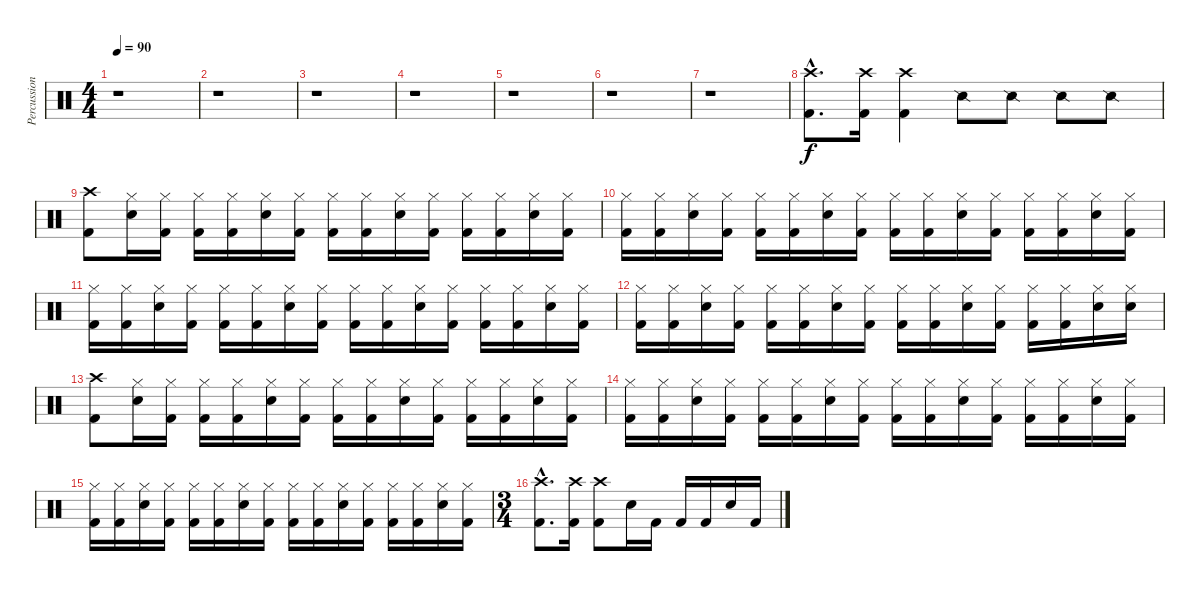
\track ("Percussions" "Percussion") {instrument percussion}
\staff {score}
\articulation defaults
\ts (4 4)
\tempo 90
\clef neutral
\ks c
r.1{dy f} |
r.1 |
r.1 |
r.1 |
r.1 |
r.1 |
r.1 |
("Crash high (hit)"{hac} "Kick (hit) 2"{hac}).8{d} ("Crash high (hit)" "Kick (hit) 2").16 ("Crash high (hit)" "Kick (hit) 2").4 "Snare (side stick) 2".8 "Snare (side stick) 2".8 "Snare (side stick) 2".8 "Snare (side stick) 2".8 |
("Crash high (hit)" "Kick (hit) 2").8 ("Hi-Hat (closed)" "Snare (hit) 2").16 ("Hi-Hat (closed)" "Kick (hit) 2").16 ("Hi-Hat (closed)" "Kick (hit) 2").16 ("Hi-Hat (closed)" "Kick (hit) 2").16 ("Hi-Hat (closed)" "Snare (hit) 2").16 ("Hi-Hat (closed)" "Kick (hit) 2").16 ("Hi-Hat (closed)" "Kick (hit) 2").16 ("Hi-Hat (closed)" "Kick (hit) 2").16 ("Hi-Hat (closed)" "Snare (hit) 2").16 ("Hi-Hat (closed)" "Kick (hit) 2").16 ("Hi-Hat (closed)" "Kick (hit) 2").16 ("Hi-Hat (closed)" "Kick (hit) 2").16 ("Hi-Hat (closed)" "Snare (hit) 2").16 ("Hi-Hat (closed)" "Kick (hit) 2").16 |
("Hi-Hat (closed)" "Kick (hit) 2").16 ("Hi-Hat (closed)" "Kick (hit) 2").16 ("Hi-Hat (closed)" "Snare (hit) 2").16 ("Hi-Hat (closed)" "Kick (hit) 2").16 ("Hi-Hat (closed)" "Kick (hit) 2").16 ("Hi-Hat (closed)" "Kick (hit) 2").16 ("Hi-Hat (closed)" "Snare (hit) 2").16 ("Hi-Hat (closed)" "Kick (hit) 2").16 ("Hi-Hat (closed)" "Kick (hit) 2").16 ("Hi-Hat (closed)" "Kick (hit) 2").16 ("Hi-Hat (closed)" "Snare (hit) 2").16 ("Hi-Hat (closed)" "Kick (hit) 2").16 ("Hi-Hat (closed)" "Kick (hit) 2").16 ("Hi-Hat (closed)" "Kick (hit) 2").16 ("Hi-Hat (closed)" "Snare (hit) 2").16 ("Hi-Hat (closed)" "Kick (hit) 2").16 |
("Hi-Hat (closed)" "Kick (hit) 2").16 ("Hi-Hat (closed)" "Kick (hit) 2").16 ("Hi-Hat (closed)" "Snare (hit) 2").16 ("Hi-Hat (closed)" "Kick (hit) 2").16 ("Hi-Hat (closed)" "Kick (hit) 2").16 ("Hi-Hat (closed)" "Kick (hit) 2").16 ("Hi-Hat (closed)" "Snare (hit) 2").16 ("Hi-Hat (closed)" "Kick (hit) 2").16 ("Hi-Hat (closed)" "Kick (hit) 2").16 ("Hi-Hat (closed)" "Kick (hit) 2").16 ("Hi-Hat (closed)" "Snare (hit) 2").16 ("Hi-Hat (closed)" "Kick (hit) 2").16 ("Hi-Hat (closed)" "Kick (hit) 2").16 ("Hi-Hat (closed)" "Kick (hit) 2").16 ("Hi-Hat (closed)" "Snare (hit) 2").16 ("Hi-Hat (closed)" "Kick (hit) 2").16 |
("Hi-Hat (closed)" "Kick (hit) 2").16 ("Hi-Hat (closed)" "Kick (hit) 2").16 ("Hi-Hat (closed)" "Snare (hit) 2").16 ("Hi-Hat (closed)" "Kick (hit) 2").16 ("Hi-Hat (closed)" "Kick (hit) 2").16 ("Hi-Hat (closed)" "Kick (hit) 2").16 ("Hi-Hat (closed)" "Snare (hit) 2").16 ("Hi-Hat (closed)" "Kick (hit) 2").16 ("Hi-Hat (closed)" "Kick (hit) 2").16 ("Hi-Hat (closed)" "Kick (hit) 2").16 ("Hi-Hat (closed)" "Snare (hit) 2").16 ("Hi-Hat (closed)" "Kick (hit) 2").16 ("Hi-Hat (closed)" "Kick (hit) 2").16 ("Hi-Hat (closed)" "Kick (hit) 2").16 ("Hi-Hat (closed)" "Snare (hit) 2").16 ("Hi-Hat (closed)" "Snare (hit) 2").16 |
("Crash high (hit)" "Kick (hit) 2").8 ("Hi-Hat (closed)" "Snare (hit) 2").16 ("Hi-Hat (closed)" "Kick (hit) 2").16 ("Hi-Hat (closed)" "Kick (hit) 2").16 ("Hi-Hat (closed)" "Kick (hit) 2").16 ("Hi-Hat (closed)" "Snare (hit) 2").16 ("Hi-Hat (closed)" "Kick (hit) 2").16 ("Hi-Hat (closed)" "Kick (hit) 2").16 ("Hi-Hat (closed)" "Kick (hit) 2").16 ("Hi-Hat (closed)" "Snare (hit) 2").16 ("Hi-Hat (closed)" "Kick (hit) 2").16 ("Hi-Hat (closed)" "Kick (hit) 2").16 ("Hi-Hat (closed)" "Kick (hit) 2").16 ("Hi-Hat (closed)" "Snare (hit) 2").16 ("Hi-Hat (closed)" "Kick (hit) 2").16 |
("Hi-Hat (closed)" "Kick (hit) 2").16 ("Hi-Hat (closed)" "Kick (hit) 2").16 ("Hi-Hat (closed)" "Snare (hit) 2").16 ("Hi-Hat (closed)" "Kick (hit) 2").16 ("Hi-Hat (closed)" "Kick (hit) 2").16 ("Hi-Hat (closed)" "Kick (hit) 2").16 ("Hi-Hat (closed)" "Snare (hit) 2").16 ("Hi-Hat (closed)" "Kick (hit) 2").16 ("Hi-Hat (closed)" "Kick (hit) 2").16 ("Hi-Hat (closed)" "Kick (hit) 2").16 ("Hi-Hat (closed)" "Snare (hit) 2").16 ("Hi-Hat (closed)" "Kick (hit) 2").16 ("Hi-Hat (closed)" "Kick (hit) 2").16 ("Hi-Hat (closed)" "Kick (hit) 2").16 ("Hi-Hat (closed)" "Snare (hit) 2").16 ("Hi-Hat (closed)" "Kick (hit) 2").16 |
("Hi-Hat (closed)" "Kick (hit) 2").16 ("Hi-Hat (closed)" "Kick (hit) 2").16 ("Hi-Hat (closed)" "Snare (hit) 2").16 ("Hi-Hat (closed)" "Kick (hit) 2").16 ("Hi-Hat (closed)" "Kick (hit) 2").16 ("Hi-Hat (closed)" "Kick (hit) 2").16 ("Hi-Hat (closed)" "Snare (hit) 2").16 ("Hi-Hat (closed)" "Kick (hit) 2").16 ("Hi-Hat (closed)" "Kick (hit) 2").16 ("Hi-Hat (closed)" "Kick (hit) 2").16 ("Hi-Hat (closed)" "Snare (hit) 2").16 ("Hi-Hat (closed)" "Kick (hit) 2").16 ("Hi-Hat (closed)" "Kick (hit) 2").16 ("Hi-Hat (closed)" "Kick (hit) 2").16 ("Hi-Hat (closed)" "Snare (hit) 2").16 ("Hi-Hat (closed)" "Kick (hit) 2").16 |
\ts (3 4)
("Crash high (hit)"{hac} "Kick (hit) 2"{hac}).8{d} ("Crash high (hit)" "Kick (hit) 2").16 ("Crash high (hit)" "Kick (hit) 2").8 "Snare (hit) 2".16 "Kick (hit) 2".16 "Kick (hit) 2".16 "Kick (hit) 2".16 "Snare (hit) 2".16 "Kick (hit) 2".16
